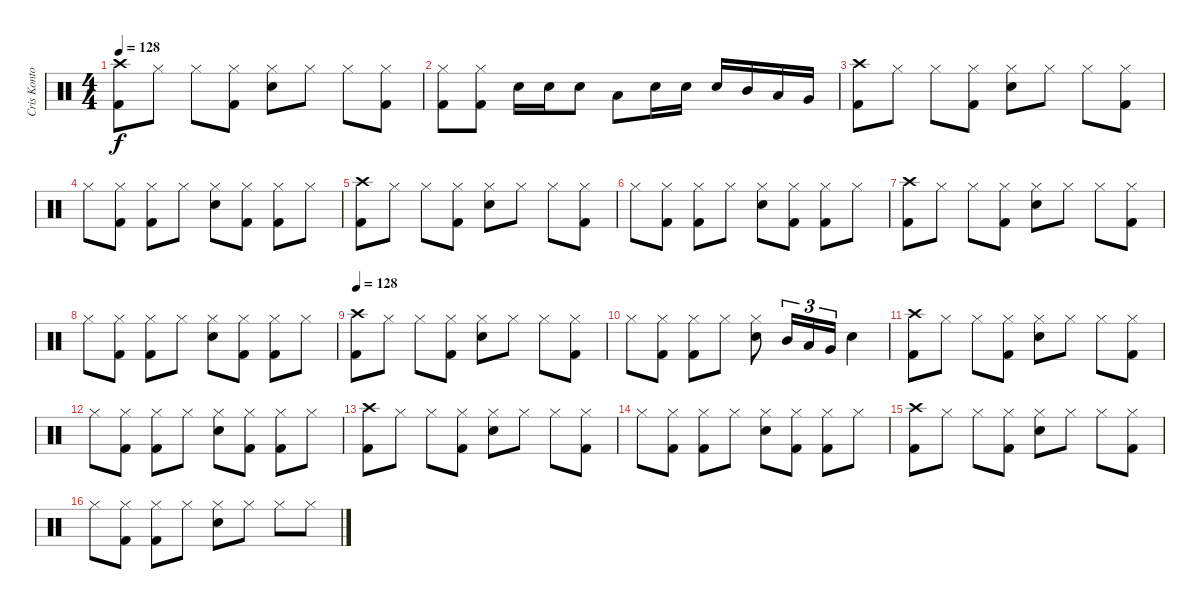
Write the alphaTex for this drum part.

\track ("Cris Kontos" "Cris Konto") {instrument percussion}
\staff {score}
\articulation defaults
\ts (4 4)
\tempo 128
\clef neutral
\ks c
("Crash high (hit)" "Kick (hit) 2").8{dy f} "Hi-Hat (closed)".8 "Hi-Hat (closed)".8 ("Hi-Hat (closed)" "Kick (hit) 2").8 ("Hi-Hat (closed)" "Electric Snare (hit)").8 "Hi-Hat (closed)".8 "Hi-Hat (closed)".8 ("Hi-Hat (closed)" "Kick (hit) 2").8 |
("Hi-Hat (closed)" "Kick (hit) 2").8 ("Hi-Hat (closed)" "Kick (hit) 2").8 "Electric Snare (hit)".16 "Electric Snare (hit)".16 "Electric Snare (hit)".8 "Low Floor Tom (hit)".8 "Electric Snare (hit)".16 "Electric Snare (hit)".16 "Electric Snare (hit)".16 "Mid Tom (hit)".16 "Low Tom (hit)".16 "Very Low Tom (hit)".16 |
("Crash high (hit)" "Kick (hit) 2").8 "Hi-Hat (closed)".8 "Hi-Hat (closed)".8 ("Hi-Hat (closed)" "Kick (hit) 2").8 ("Hi-Hat (closed)" "Electric Snare (hit)").8 "Hi-Hat (closed)".8 "Hi-Hat (closed)".8 ("Hi-Hat (closed)" "Kick (hit) 2").8 |
"Hi-Hat (closed)".8 ("Hi-Hat (closed)" "Kick (hit) 2").8 ("Hi-Hat (closed)" "Kick (hit) 2").8 "Hi-Hat (closed)".8 ("Hi-Hat (closed)" "Electric Snare (hit)").8 ("Hi-Hat (closed)" "Kick (hit) 2").8 ("Hi-Hat (closed)" "Kick (hit) 2").8 "Hi-Hat (closed)".8 |
("Crash high (hit)" "Kick (hit) 2").8 "Hi-Hat (closed)".8 "Hi-Hat (closed)".8 ("Hi-Hat (closed)" "Kick (hit) 2").8 ("Hi-Hat (closed)" "Electric Snare (hit)").8 "Hi-Hat (closed)".8 "Hi-Hat (closed)".8 ("Hi-Hat (closed)" "Kick (hit) 2").8 |
"Hi-Hat (closed)".8 ("Hi-Hat (closed)" "Kick (hit) 2").8 ("Hi-Hat (closed)" "Kick (hit) 2").8 "Hi-Hat (closed)".8 ("Hi-Hat (closed)" "Electric Snare (hit)").8 ("Hi-Hat (closed)" "Kick (hit) 2").8 ("Hi-Hat (closed)" "Kick (hit) 2").8 "Hi-Hat (closed)".8 |
("Crash high (hit)" "Kick (hit) 2").8 "Hi-Hat (closed)".8 "Hi-Hat (closed)".8 ("Hi-Hat (closed)" "Kick (hit) 2").8 ("Hi-Hat (closed)" "Electric Snare (hit)").8 "Hi-Hat (closed)".8 "Hi-Hat (closed)".8 ("Hi-Hat (closed)" "Kick (hit) 2").8 |
"Hi-Hat (closed)".8 ("Hi-Hat (closed)" "Kick (hit) 2").8 ("Hi-Hat (closed)" "Kick (hit) 2").8 "Hi-Hat (closed)".8 ("Hi-Hat (closed)" "Electric Snare (hit)").8 ("Hi-Hat (closed)" "Kick (hit) 2").8 ("Hi-Hat (closed)" "Kick (hit) 2").8 "Hi-Hat (closed)".8 |
\tempo 128
("Crash high (hit)" "Kick (hit) 2").8 "Hi-Hat (closed)".8 "Hi-Hat (closed)".8 ("Hi-Hat (closed)" "Kick (hit) 2").8 ("Hi-Hat (closed)" "Electric Snare (hit)").8 "Hi-Hat (closed)".8 "Hi-Hat (closed)".8 ("Hi-Hat (closed)" "Kick (hit) 2").8 |
"Hi-Hat (closed)".8 ("Hi-Hat (closed)" "Kick (hit) 2").8 ("Hi-Hat (closed)" "Kick (hit) 2").8 "Hi-Hat (closed)".8 ("Hi-Hat (closed)" "Electric Snare (hit)").8 "Mid Tom (hit)".16{tu (3 2)} "Low Tom (hit)".16{tu (3 2)} "Very Low Tom (hit)".16{tu (3 2)} "Electric Snare (hit)".4 |
("Crash high (hit)" "Kick (hit) 2").8 "Hi-Hat (closed)".8 "Hi-Hat (closed)".8 ("Hi-Hat (closed)" "Kick (hit) 2").8 ("Hi-Hat (closed)" "Electric Snare (hit)").8 "Hi-Hat (closed)".8 "Hi-Hat (closed)".8 ("Hi-Hat (closed)" "Kick (hit) 2").8 |
"Hi-Hat (closed)".8 ("Hi-Hat (closed)" "Kick (hit) 2").8 ("Hi-Hat (closed)" "Kick (hit) 2").8 "Hi-Hat (closed)".8 ("Hi-Hat (closed)" "Electric Snare (hit)").8 ("Hi-Hat (closed)" "Kick (hit) 2").8 ("Hi-Hat (closed)" "Kick (hit) 2").8 "Hi-Hat (closed)".8 |
("Crash high (hit)" "Kick (hit) 2").8 "Hi-Hat (closed)".8 "Hi-Hat (closed)".8 ("Hi-Hat (closed)" "Kick (hit) 2").8 ("Hi-Hat (closed)" "Electric Snare (hit)").8 "Hi-Hat (closed)".8 "Hi-Hat (closed)".8 ("Hi-Hat (closed)" "Kick (hit) 2").8 |
"Hi-Hat (closed)".8 ("Hi-Hat (closed)" "Kick (hit) 2").8 ("Hi-Hat (closed)" "Kick (hit) 2").8 "Hi-Hat (closed)".8 ("Hi-Hat (closed)" "Electric Snare (hit)").8 ("Hi-Hat (closed)" "Kick (hit) 2").8 ("Hi-Hat (closed)" "Kick (hit) 2").8 "Hi-Hat (closed)".8 |
("Crash high (hit)" "Kick (hit) 2").8 "Hi-Hat (closed)".8 "Hi-Hat (closed)".8 ("Hi-Hat (closed)" "Kick (hit) 2").8 ("Hi-Hat (closed)" "Electric Snare (hit)").8 "Hi-Hat (closed)".8 "Hi-Hat (closed)".8 ("Hi-Hat (closed)" "Kick (hit) 2").8 |
"Hi-Hat (closed)".8 ("Hi-Hat (closed)" "Kick (hit) 2").8 ("Hi-Hat (closed)" "Kick (hit) 2").8 "Hi-Hat (closed)".8 ("Hi-Hat (closed)" "Electric Snare (hit)").8 "Hi-Hat (closed)".8 "Hi-Hat (closed)".8 "Hi-Hat (closed)".8
